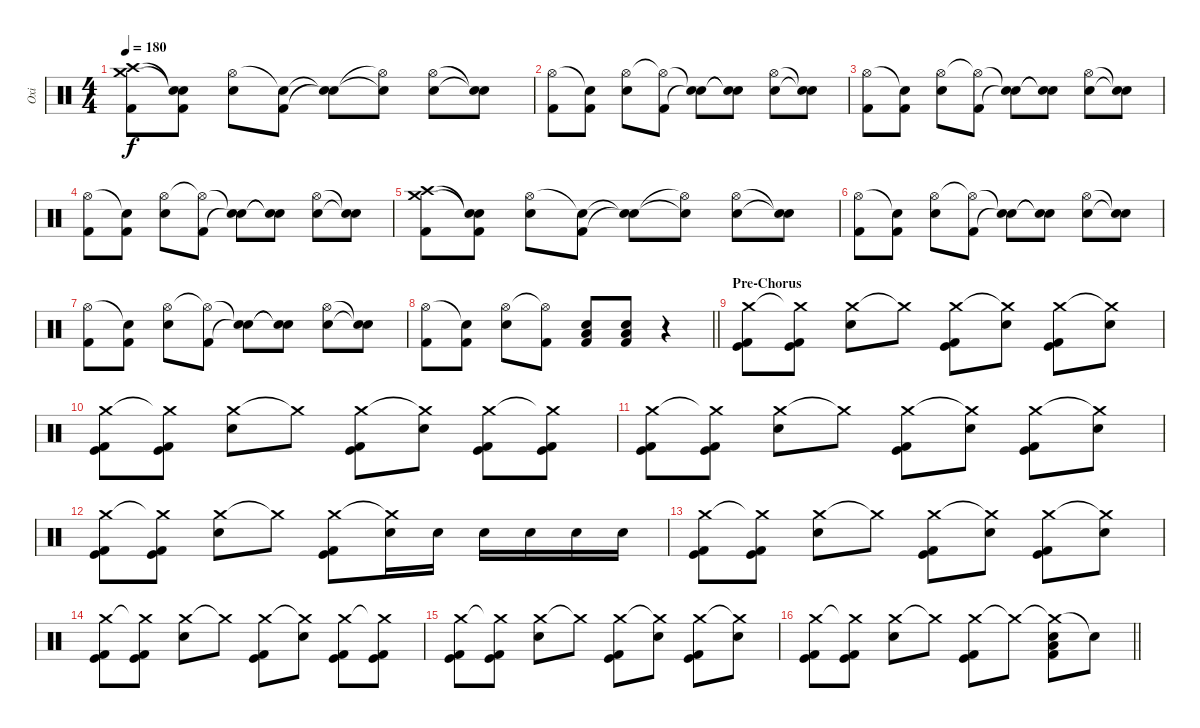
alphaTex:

\track ("Oxi" "Oxi") {instrument percussion}
\staff {score}
\articulation defaults
\ts (4 4)
\tempo 180
\clef neutral
\ks c
("Crash medium (hit)" "Crash high (hit)" "Kick (hit) 2").8{dy f} ("Snare (hit)"{t} "Snare (hit)"{t} "Kick (hit) 2").8 ("Hi-Hat (open)" "Electric Snare (hit)").8 ("Snare (hit)"{t} "Kick (hit) 2").8 ("Snare (hit)"{t} "Snare (hit)"{t}).8 ("Hi-Hat (open)"{t} "Electric Snare (hit)"{t}).8 ("Hi-Hat (open)" "Electric Snare (hit)").8 ("Snare (hit)"{t} "Snare (hit)"{t}).8 |
("Hi-Hat (open)" "Kick (hit) 2").8 ("Snare (hit)"{t} "Kick (hit) 2").8 ("Hi-Hat (open)" "Electric Snare (hit)").8 ("Hi-Hat (open)"{t} "Kick (hit) 2").8 ("Snare (hit)"{t} "Snare (hit)"{t}).8 ("Snare (hit)"{t} "Snare (hit)"{t}).8 ("Hi-Hat (open)" "Electric Snare (hit)").8 ("Snare (hit)"{t} "Snare (hit)"{t}).8 |
("Hi-Hat (open)" "Kick (hit) 2").8 ("Snare (hit)"{t} "Kick (hit) 2").8 ("Hi-Hat (open)" "Electric Snare (hit)").8 ("Hi-Hat (open)"{t} "Kick (hit) 2").8 ("Snare (hit)"{t} "Snare (hit)"{t}).8 ("Snare (hit)"{t} "Snare (hit)"{t}).8 ("Hi-Hat (open)" "Electric Snare (hit)").8 ("Snare (hit)"{t} "Snare (hit)"{t}).8 |
("Hi-Hat (open)" "Kick (hit) 2").8 ("Snare (hit)"{t} "Kick (hit) 2").8 ("Hi-Hat (open)" "Electric Snare (hit)").8 ("Hi-Hat (open)"{t} "Kick (hit) 2").8 ("Snare (hit)"{t} "Snare (hit)"{t}).8 ("Snare (hit)"{t} "Snare (hit)"{t}).8 ("Hi-Hat (open)" "Electric Snare (hit)").8 ("Snare (hit)"{t} "Snare (hit)"{t}).8 |
("Crash medium (hit)" "Crash high (hit)" "Kick (hit) 2").8 ("Snare (hit)"{t} "Snare (hit)"{t} "Kick (hit) 2").8 ("Hi-Hat (open)" "Electric Snare (hit)").8 ("Snare (hit)"{t} "Kick (hit) 2").8 ("Snare (hit)"{t} "Snare (hit)"{t}).8 ("Hi-Hat (open)"{t} "Electric Snare (hit)"{t}).8 ("Hi-Hat (open)" "Electric Snare (hit)").8 ("Snare (hit)"{t} "Snare (hit)"{t}).8 |
("Hi-Hat (open)" "Kick (hit) 2").8 ("Snare (hit)"{t} "Kick (hit) 2").8 ("Hi-Hat (open)" "Electric Snare (hit)").8 ("Hi-Hat (open)"{t} "Kick (hit) 2").8 ("Snare (hit)"{t} "Snare (hit)"{t}).8 ("Snare (hit)"{t} "Snare (hit)"{t}).8 ("Hi-Hat (open)" "Electric Snare (hit)").8 ("Snare (hit)"{t} "Snare (hit)"{t}).8 |
("Hi-Hat (open)" "Kick (hit) 2").8 ("Snare (hit)"{t} "Kick (hit) 2").8 ("Hi-Hat (open)" "Electric Snare (hit)").8 ("Hi-Hat (open)"{t} "Kick (hit) 2").8 ("Snare (hit)"{t} "Snare (hit)"{t}).8 ("Snare (hit)"{t} "Snare (hit)"{t}).8 ("Hi-Hat (open)" "Electric Snare (hit)").8 ("Snare (hit)"{t} "Snare (hit)"{t}).8 |
\barLineRight lightlight
("Hi-Hat (open)" "Kick (hit) 2").8 ("Snare (hit)"{t} "Kick (hit) 2").8 ("Hi-Hat (open)" "Electric Snare (hit)").8 ("Hi-Hat (open)"{t} "Kick (hit) 2").8 ("Electric Snare (hit)" "Low Tom (hit)" "Kick (hit) 2").8 ("Electric Snare (hit)" "Low Tom (hit)" "Kick (hit) 2").8 r.4 |
\section ("" "Pre-Chorus")
("Crash medium (hit)" "Kick (hit) 2" "Kick (hit)").8 ("Crash medium (hit)"{t} "Kick (hit) 2" "Kick (hit)").8 ("Crash medium (hit)" "Electric Snare (hit)").8 "Crash medium (hit)"{t}.8 ("Crash medium (hit)" "Kick (hit) 2" "Kick (hit)").8 ("Crash medium (hit)"{t} "Electric Snare (hit)").8 ("Crash medium (hit)" "Kick (hit) 2" "Kick (hit)").8 ("Crash medium (hit)"{t} "Electric Snare (hit)").8 |
("Crash medium (hit)" "Kick (hit) 2" "Kick (hit)").8 ("Crash medium (hit)"{t} "Kick (hit) 2" "Kick (hit)").8 ("Crash medium (hit)" "Electric Snare (hit)").8 "Crash medium (hit)"{t}.8 ("Crash medium (hit)" "Kick (hit) 2" "Kick (hit)").8 ("Crash medium (hit)"{t} "Electric Snare (hit)").8 ("Crash medium (hit)" "Kick (hit) 2" "Kick (hit)").8 ("Crash medium (hit)"{t} "Kick (hit) 2" "Kick (hit)").8 |
("Crash medium (hit)" "Kick (hit) 2" "Kick (hit)").8 ("Crash medium (hit)"{t} "Kick (hit) 2" "Kick (hit)").8 ("Crash medium (hit)" "Electric Snare (hit)").8 "Crash medium (hit)"{t}.8 ("Crash medium (hit)" "Kick (hit) 2" "Kick (hit)").8 ("Crash medium (hit)"{t} "Electric Snare (hit)").8 ("Crash medium (hit)" "Kick (hit) 2" "Kick (hit)").8 ("Crash medium (hit)"{t} "Electric Snare (hit)").8 |
("Crash medium (hit)" "Kick (hit) 2" "Kick (hit)").8 ("Crash medium (hit)"{t} "Kick (hit) 2" "Kick (hit)").8 ("Crash medium (hit)" "Electric Snare (hit)").8 "Crash medium (hit)"{t}.8 ("Crash medium (hit)" "Kick (hit) 2" "Kick (hit)").8 ("Crash medium (hit)"{t} "Electric Snare (hit)").16 "Electric Snare (hit)".16 "Electric Snare (hit)".16 "Electric Snare (hit)".16 "Electric Snare (hit)".16 "Electric Snare (hit)".16 |
("Crash medium (hit)" "Kick (hit) 2" "Kick (hit)").8 ("Crash medium (hit)"{t} "Kick (hit) 2" "Kick (hit)").8 ("Crash medium (hit)" "Electric Snare (hit)").8 "Crash medium (hit)"{t}.8 ("Crash medium (hit)" "Kick (hit) 2" "Kick (hit)").8 ("Crash medium (hit)"{t} "Electric Snare (hit)").8 ("Crash medium (hit)" "Kick (hit) 2" "Kick (hit)").8 ("Crash medium (hit)"{t} "Electric Snare (hit)").8 |
("Crash medium (hit)" "Kick (hit) 2" "Kick (hit)").8 ("Crash medium (hit)"{t} "Kick (hit) 2" "Kick (hit)").8 ("Crash medium (hit)" "Electric Snare (hit)").8 "Crash medium (hit)"{t}.8 ("Crash medium (hit)" "Kick (hit) 2" "Kick (hit)").8 ("Crash medium (hit)"{t} "Electric Snare (hit)").8 ("Crash medium (hit)" "Kick (hit) 2" "Kick (hit)").8 ("Crash medium (hit)"{t} "Kick (hit) 2" "Kick (hit)").8 |
("Crash medium (hit)" "Kick (hit) 2" "Kick (hit)").8 ("Crash medium (hit)"{t} "Kick (hit) 2" "Kick (hit)").8 ("Crash medium (hit)" "Electric Snare (hit)").8 "Crash medium (hit)"{t}.8 ("Crash medium (hit)" "Kick (hit) 2" "Kick (hit)").8 ("Crash medium (hit)"{t} "Electric Snare (hit)").8 ("Crash medium (hit)" "Kick (hit) 2" "Kick (hit)").8 ("Crash medium (hit)"{t} "Electric Snare (hit)").8 |
\barLineRight lightlight
("Crash medium (hit)" "Kick (hit) 2" "Kick (hit)").8 ("Crash medium (hit)"{t} "Kick (hit) 2" "Kick (hit)").8 ("Crash medium (hit)" "Electric Snare (hit)").8 "Crash medium (hit)"{t}.8 ("Crash medium (hit)" "Kick (hit) 2" "Kick (hit)").8 "Crash medium (hit)"{t}.8 ("Crash medium (hit)"{t} "Electric Snare (hit)" "Low Tom (hit)" "Kick (hit) 2").8 "Snare (hit)"{t}.8
